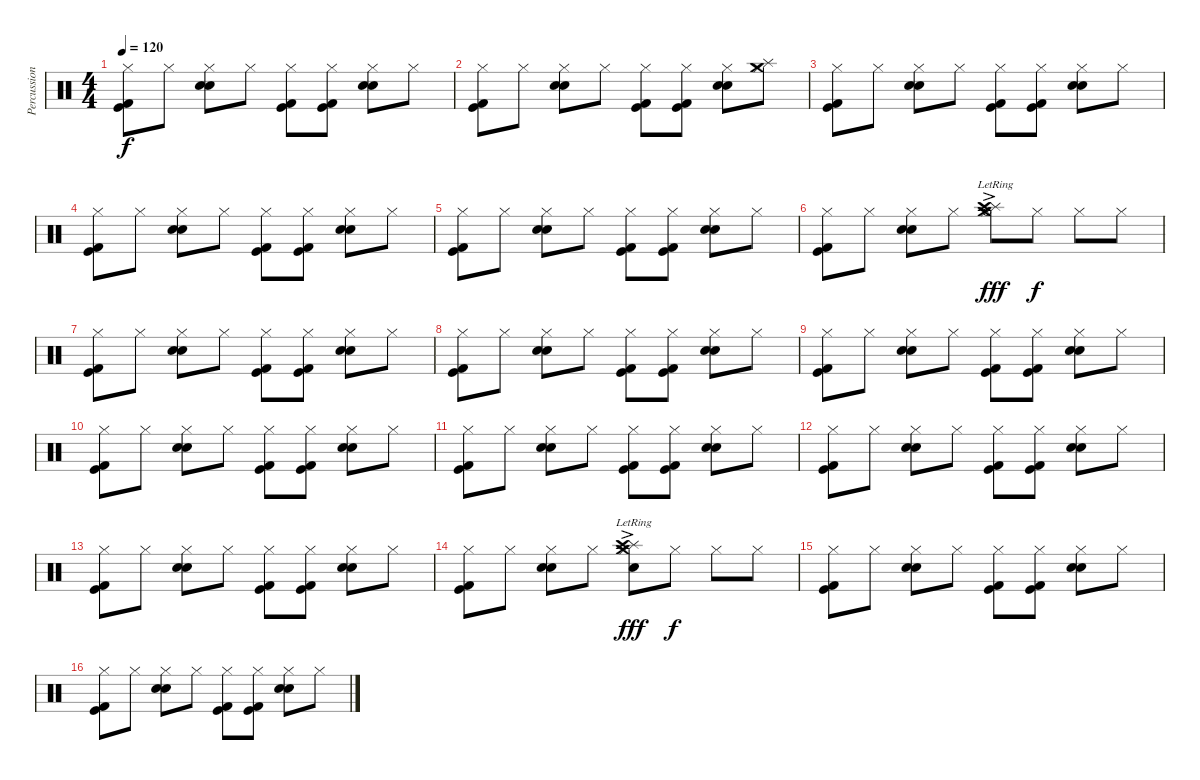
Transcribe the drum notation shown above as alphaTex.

\track ("Percussions" "Percussion") {instrument percussion}
\staff {score}
\articulation defaults
\ts (4 4)
\tempo 120
\clef neutral
\ks c
("Hi-Hat (closed)" "Kick (hit)" "Kick (hit) 2").8{dy f} "Hi-Hat (closed)".8 ("Hi-Hat (closed)" "Snare (hit) 2" "Electric Snare (hit)").8 "Hi-Hat (closed)".8 ("Hi-Hat (closed)" "Kick (hit)" "Kick (hit) 2").8 ("Hi-Hat (closed)" "Kick (hit)" "Kick (hit) 2").8 ("Hi-Hat (closed)" "Snare (hit) 2" "Electric Snare (hit)").8 "Hi-Hat (closed)".8 |
("Hi-Hat (closed)" "Kick (hit)" "Kick (hit) 2").8 "Hi-Hat (closed)".8 ("Hi-Hat (closed)" "Snare (hit) 2" "Electric Snare (hit)").8 "Hi-Hat (closed)".8 ("Hi-Hat (closed)" "Kick (hit)" "Kick (hit) 2").8 ("Hi-Hat (closed)" "Kick (hit)" "Kick (hit) 2").8 ("Hi-Hat (closed)" "Snare (hit) 2" "Electric Snare (hit)").8 ("Hi-Hat (closed)" "Splash (hit)" "Crash medium (hit)").8 |
("Hi-Hat (closed)" "Kick (hit)" "Kick (hit) 2").8 "Hi-Hat (closed)".8 ("Hi-Hat (closed)" "Snare (hit) 2" "Electric Snare (hit)").8 "Hi-Hat (closed)".8 ("Hi-Hat (closed)" "Kick (hit)" "Kick (hit) 2").8 ("Hi-Hat (closed)" "Kick (hit)" "Kick (hit) 2").8 ("Hi-Hat (closed)" "Snare (hit) 2" "Electric Snare (hit)").8 "Hi-Hat (closed)".8 |
("Hi-Hat (closed)" "Kick (hit)" "Kick (hit) 2").8 "Hi-Hat (closed)".8 ("Hi-Hat (closed)" "Snare (hit) 2" "Electric Snare (hit)").8 "Hi-Hat (closed)".8 ("Hi-Hat (closed)" "Kick (hit)" "Kick (hit) 2").8 ("Hi-Hat (closed)" "Kick (hit)" "Kick (hit) 2").8 ("Hi-Hat (closed)" "Snare (hit) 2" "Electric Snare (hit)").8 "Hi-Hat (closed)".8 |
("Hi-Hat (closed)" "Kick (hit)" "Kick (hit) 2").8 "Hi-Hat (closed)".8 ("Hi-Hat (closed)" "Snare (hit) 2" "Electric Snare (hit)").8 "Hi-Hat (closed)".8 ("Hi-Hat (closed)" "Kick (hit)" "Kick (hit) 2").8 ("Hi-Hat (closed)" "Kick (hit)" "Kick (hit) 2").8 ("Hi-Hat (closed)" "Snare (hit) 2" "Electric Snare (hit)").8 "Hi-Hat (closed)".8 |
("Hi-Hat (closed)" "Kick (hit)" "Kick (hit) 2").8 "Hi-Hat (closed)".8 ("Hi-Hat (closed)" "Snare (hit) 2" "Electric Snare (hit)").8 "Hi-Hat (closed)".8 ("Hi-Hat (closed)" "Splash (hit)"{ac lr} "Crash medium (hit)" "Hi-Hat (open)" "Crash high (hit)").8{dy fff} "Hi-Hat (closed)".8{dy f} "Hi-Hat (closed)".8 "Hi-Hat (closed)".8 |
("Hi-Hat (closed)" "Kick (hit)" "Kick (hit) 2").8 "Hi-Hat (closed)".8 ("Hi-Hat (closed)" "Snare (hit) 2" "Electric Snare (hit)").8 "Hi-Hat (closed)".8 ("Hi-Hat (closed)" "Kick (hit)" "Kick (hit) 2").8 ("Hi-Hat (closed)" "Kick (hit)" "Kick (hit) 2").8 ("Hi-Hat (closed)" "Snare (hit) 2" "Electric Snare (hit)").8 "Hi-Hat (closed)".8 |
("Hi-Hat (closed)" "Kick (hit)" "Kick (hit) 2").8 "Hi-Hat (closed)".8 ("Hi-Hat (closed)" "Snare (hit) 2" "Electric Snare (hit)").8 "Hi-Hat (closed)".8 ("Hi-Hat (closed)" "Kick (hit)" "Kick (hit) 2").8 ("Hi-Hat (closed)" "Kick (hit)" "Kick (hit) 2").8 ("Hi-Hat (closed)" "Snare (hit) 2" "Electric Snare (hit)").8 "Hi-Hat (closed)".8 |
("Hi-Hat (closed)" "Kick (hit)" "Kick (hit) 2").8 "Hi-Hat (closed)".8 ("Hi-Hat (closed)" "Snare (hit) 2" "Electric Snare (hit)").8 "Hi-Hat (closed)".8 ("Hi-Hat (closed)" "Kick (hit)" "Kick (hit) 2").8 ("Hi-Hat (closed)" "Kick (hit)" "Kick (hit) 2").8 ("Hi-Hat (closed)" "Snare (hit) 2" "Electric Snare (hit)").8 "Hi-Hat (closed)".8 |
("Hi-Hat (closed)" "Kick (hit)" "Kick (hit) 2").8 "Hi-Hat (closed)".8 ("Hi-Hat (closed)" "Snare (hit) 2" "Electric Snare (hit)").8 "Hi-Hat (closed)".8 ("Hi-Hat (closed)" "Kick (hit)" "Kick (hit) 2").8 ("Hi-Hat (closed)" "Kick (hit)" "Kick (hit) 2").8 ("Hi-Hat (closed)" "Snare (hit) 2" "Electric Snare (hit)").8 "Hi-Hat (closed)".8 |
("Hi-Hat (closed)" "Kick (hit)" "Kick (hit) 2").8 "Hi-Hat (closed)".8 ("Hi-Hat (closed)" "Snare (hit) 2" "Electric Snare (hit)").8 "Hi-Hat (closed)".8 ("Hi-Hat (closed)" "Kick (hit)" "Kick (hit) 2").8 ("Hi-Hat (closed)" "Kick (hit)" "Kick (hit) 2").8 ("Hi-Hat (closed)" "Snare (hit) 2" "Electric Snare (hit)").8 "Hi-Hat (closed)".8 |
("Hi-Hat (closed)" "Kick (hit)" "Kick (hit) 2").8 "Hi-Hat (closed)".8 ("Hi-Hat (closed)" "Snare (hit) 2" "Electric Snare (hit)").8 "Hi-Hat (closed)".8 ("Hi-Hat (closed)" "Kick (hit)" "Kick (hit) 2").8 ("Hi-Hat (closed)" "Kick (hit)" "Kick (hit) 2").8 ("Hi-Hat (closed)" "Snare (hit) 2" "Electric Snare (hit)").8 "Hi-Hat (closed)".8 |
("Hi-Hat (closed)" "Kick (hit)" "Kick (hit) 2").8 "Hi-Hat (closed)".8 ("Hi-Hat (closed)" "Snare (hit) 2" "Electric Snare (hit)").8 "Hi-Hat (closed)".8 ("Hi-Hat (closed)" "Kick (hit)" "Kick (hit) 2").8 ("Hi-Hat (closed)" "Kick (hit)" "Kick (hit) 2").8 ("Hi-Hat (closed)" "Snare (hit) 2" "Electric Snare (hit)").8 "Hi-Hat (closed)".8 |
("Hi-Hat (closed)" "Kick (hit)" "Kick (hit) 2").8 "Hi-Hat (closed)".8 ("Hi-Hat (closed)" "Snare (hit) 2" "Electric Snare (hit)").8 "Hi-Hat (closed)".8 ("Hi-Hat (closed)" "Splash (hit)" "Crash medium (hit)" "Crash high (hit)"{ac lr} "Snare (hit)").8{dy fff} "Hi-Hat (closed)".8{dy f} "Hi-Hat (closed)".8 "Hi-Hat (closed)".8 |
("Hi-Hat (closed)" "Kick (hit)" "Kick (hit) 2").8 "Hi-Hat (closed)".8 ("Hi-Hat (closed)" "Snare (hit) 2" "Electric Snare (hit)").8 "Hi-Hat (closed)".8 ("Hi-Hat (closed)" "Kick (hit)" "Kick (hit) 2").8 ("Hi-Hat (closed)" "Kick (hit)" "Kick (hit) 2").8 ("Hi-Hat (closed)" "Snare (hit) 2" "Electric Snare (hit)").8 "Hi-Hat (closed)".8 |
("Hi-Hat (closed)" "Kick (hit)" "Kick (hit) 2").8 "Hi-Hat (closed)".8 ("Hi-Hat (closed)" "Snare (hit) 2" "Electric Snare (hit)").8 "Hi-Hat (closed)".8 ("Hi-Hat (closed)" "Kick (hit)" "Kick (hit) 2").8 ("Hi-Hat (closed)" "Kick (hit)" "Kick (hit) 2").8 ("Hi-Hat (closed)" "Snare (hit) 2" "Electric Snare (hit)").8 "Hi-Hat (closed)".8
